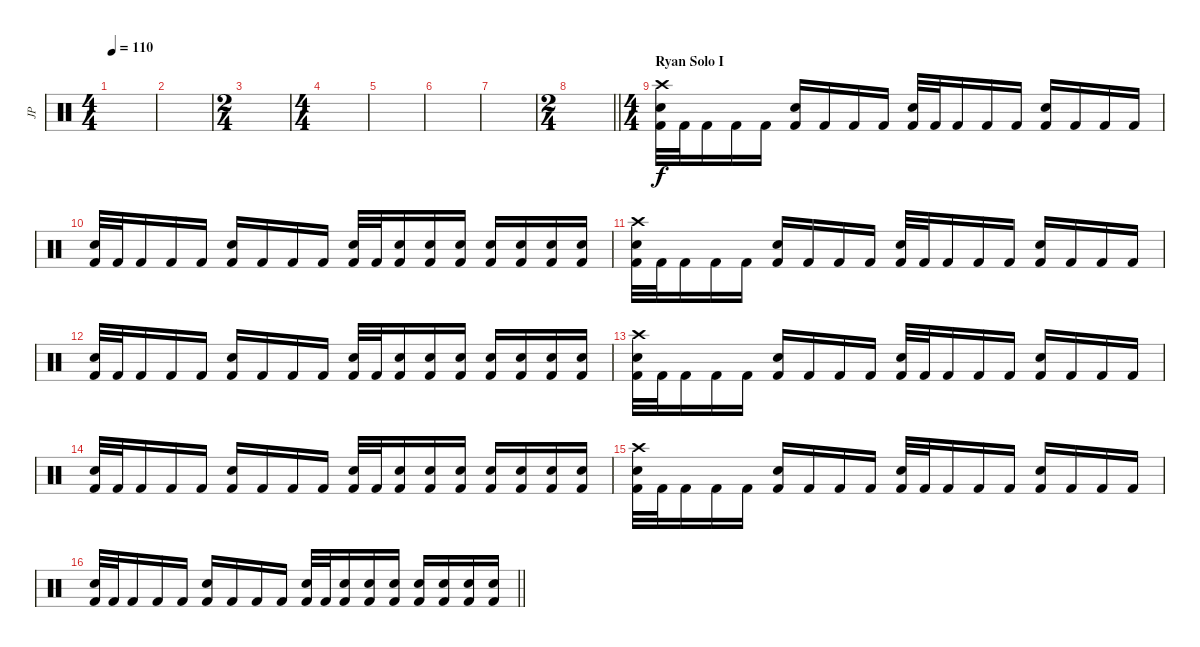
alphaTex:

\track ("JP" "JP") {instrument percussion}
\staff {score}
\articulation defaults
\ts (4 4)
\tempo 110
\clef neutral
\ks c
|
|
\ts (2 4)
|
\ts (4 4)
|
|
|
|
\ts (2 4)
\barLineRight lightlight
|
\ts (4 4)
\section ("" "Ryan Solo I")
("Crash high (hit)" "Electric Snare (hit)" "Kick (hit) 2").32 "Kick (hit) 2".32 "Kick (hit) 2".16 "Kick (hit) 2".16 "Kick (hit) 2".16 ("Electric Snare (hit)" "Kick (hit) 2").16 "Kick (hit) 2".16 "Kick (hit) 2".16 "Kick (hit) 2".16 ("Electric Snare (hit)" "Kick (hit) 2").32 "Kick (hit) 2".32 "Kick (hit) 2".16 "Kick (hit) 2".16 "Kick (hit) 2".16 ("Electric Snare (hit)" "Kick (hit) 2").16 "Kick (hit) 2".16 "Kick (hit) 2".16 "Kick (hit) 2".16 |
("Electric Snare (hit)" "Kick (hit) 2").32 "Kick (hit) 2".32 "Kick (hit) 2".16 "Kick (hit) 2".16 "Kick (hit) 2".16 ("Electric Snare (hit)" "Kick (hit) 2").16 "Kick (hit) 2".16 "Kick (hit) 2".16 "Kick (hit) 2".16 ("Electric Snare (hit)" "Kick (hit) 2").32 "Kick (hit) 2".32 ("Electric Snare (hit)" "Kick (hit) 2").16 ("Electric Snare (hit)" "Kick (hit) 2").16 ("Electric Snare (hit)" "Kick (hit) 2").16 ("Electric Snare (hit)" "Kick (hit) 2").16 ("Electric Snare (hit)" "Kick (hit) 2").16 ("Electric Snare (hit)" "Kick (hit) 2").16 ("Electric Snare (hit)" "Kick (hit) 2").16 |
("Crash high (hit)" "Electric Snare (hit)" "Kick (hit) 2").32 "Kick (hit) 2".32 "Kick (hit) 2".16 "Kick (hit) 2".16 "Kick (hit) 2".16 ("Electric Snare (hit)" "Kick (hit) 2").16 "Kick (hit) 2".16 "Kick (hit) 2".16 "Kick (hit) 2".16 ("Electric Snare (hit)" "Kick (hit) 2").32 "Kick (hit) 2".32 "Kick (hit) 2".16 "Kick (hit) 2".16 "Kick (hit) 2".16 ("Electric Snare (hit)" "Kick (hit) 2").16 "Kick (hit) 2".16 "Kick (hit) 2".16 "Kick (hit) 2".16 |
("Electric Snare (hit)" "Kick (hit) 2").32 "Kick (hit) 2".32 "Kick (hit) 2".16 "Kick (hit) 2".16 "Kick (hit) 2".16 ("Electric Snare (hit)" "Kick (hit) 2").16 "Kick (hit) 2".16 "Kick (hit) 2".16 "Kick (hit) 2".16 ("Electric Snare (hit)" "Kick (hit) 2").32 "Kick (hit) 2".32 ("Electric Snare (hit)" "Kick (hit) 2").16 ("Electric Snare (hit)" "Kick (hit) 2").16 ("Electric Snare (hit)" "Kick (hit) 2").16 ("Electric Snare (hit)" "Kick (hit) 2").16 ("Electric Snare (hit)" "Kick (hit) 2").16 ("Electric Snare (hit)" "Kick (hit) 2").16 ("Electric Snare (hit)" "Kick (hit) 2").16 |
("Crash high (hit)" "Electric Snare (hit)" "Kick (hit) 2").32 "Kick (hit) 2".32 "Kick (hit) 2".16 "Kick (hit) 2".16 "Kick (hit) 2".16 ("Electric Snare (hit)" "Kick (hit) 2").16 "Kick (hit) 2".16 "Kick (hit) 2".16 "Kick (hit) 2".16 ("Electric Snare (hit)" "Kick (hit) 2").32 "Kick (hit) 2".32 "Kick (hit) 2".16 "Kick (hit) 2".16 "Kick (hit) 2".16 ("Electric Snare (hit)" "Kick (hit) 2").16 "Kick (hit) 2".16 "Kick (hit) 2".16 "Kick (hit) 2".16 |
("Electric Snare (hit)" "Kick (hit) 2").32 "Kick (hit) 2".32 "Kick (hit) 2".16 "Kick (hit) 2".16 "Kick (hit) 2".16 ("Electric Snare (hit)" "Kick (hit) 2").16 "Kick (hit) 2".16 "Kick (hit) 2".16 "Kick (hit) 2".16 ("Electric Snare (hit)" "Kick (hit) 2").32 "Kick (hit) 2".32 ("Electric Snare (hit)" "Kick (hit) 2").16 ("Electric Snare (hit)" "Kick (hit) 2").16 ("Electric Snare (hit)" "Kick (hit) 2").16 ("Electric Snare (hit)" "Kick (hit) 2").16 ("Electric Snare (hit)" "Kick (hit) 2").16 ("Electric Snare (hit)" "Kick (hit) 2").16 ("Electric Snare (hit)" "Kick (hit) 2").16 |
("Crash high (hit)" "Electric Snare (hit)" "Kick (hit) 2").32 "Kick (hit) 2".32 "Kick (hit) 2".16 "Kick (hit) 2".16 "Kick (hit) 2".16 ("Electric Snare (hit)" "Kick (hit) 2").16 "Kick (hit) 2".16 "Kick (hit) 2".16 "Kick (hit) 2".16 ("Electric Snare (hit)" "Kick (hit) 2").32 "Kick (hit) 2".32 "Kick (hit) 2".16 "Kick (hit) 2".16 "Kick (hit) 2".16 ("Electric Snare (hit)" "Kick (hit) 2").16 "Kick (hit) 2".16 "Kick (hit) 2".16 "Kick (hit) 2".16 |
\barLineRight lightlight
("Electric Snare (hit)" "Kick (hit) 2").32 "Kick (hit) 2".32 "Kick (hit) 2".16 "Kick (hit) 2".16 "Kick (hit) 2".16 ("Electric Snare (hit)" "Kick (hit) 2").16 "Kick (hit) 2".16 "Kick (hit) 2".16 "Kick (hit) 2".16 ("Electric Snare (hit)" "Kick (hit) 2").32 "Kick (hit) 2".32 ("Electric Snare (hit)" "Kick (hit) 2").16 ("Electric Snare (hit)" "Kick (hit) 2").16 ("Electric Snare (hit)" "Kick (hit) 2").16 ("Electric Snare (hit)" "Kick (hit) 2").16 ("Electric Snare (hit)" "Kick (hit) 2").16 ("Electric Snare (hit)" "Kick (hit) 2").16 ("Electric Snare (hit)" "Kick (hit) 2").16
